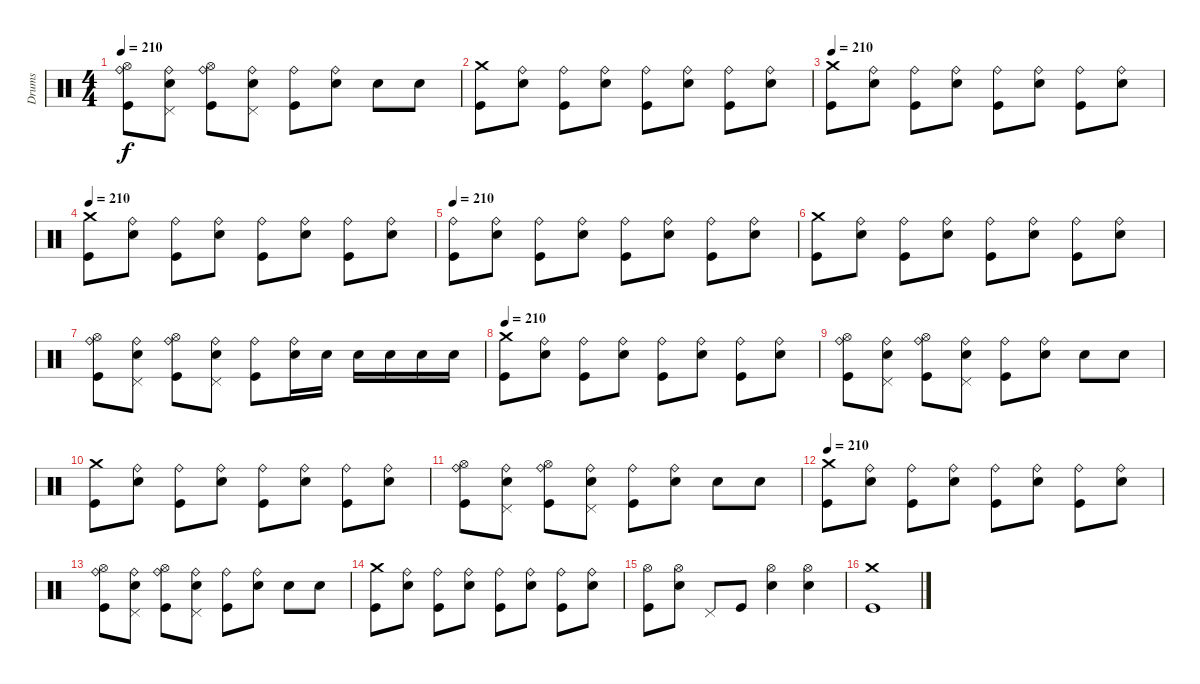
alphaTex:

\track ("Drums" "Drums") {instrument percussion}
\staff {score}
\articulation defaults
\ts (4 4)
\tempo 210
\clef neutral
\ks c
("Ride (bell)" "Hi-Hat (open)" "Kick (hit)").8{dy f} ("Ride (bell)" "Pedal Hi-Hat (hit)" "Electric Snare (hit)").8 ("Ride (bell)" "Hi-Hat (open)" "Kick (hit)").8 ("Ride (bell)" "Pedal Hi-Hat (hit)" "Electric Snare (hit)").8 ("Ride (bell)" "Kick (hit)").8 ("Ride (bell)" "Electric Snare (hit)").8 "Electric Snare (hit)".8 "Electric Snare (hit)".8 |
("Crash medium (hit)" "Kick (hit)").8 ("Ride (bell)" "Electric Snare (hit)").8 ("Ride (bell)" "Kick (hit)").8 ("Ride (bell)" "Electric Snare (hit)").8 ("Ride (bell)" "Kick (hit)").8 ("Ride (bell)" "Electric Snare (hit)").8 ("Ride (bell)" "Kick (hit)").8 ("Ride (bell)" "Electric Snare (hit)").8 |
\tempo 210
("Crash medium (hit)" "Kick (hit)").8 ("Ride (bell)" "Electric Snare (hit)").8 ("Ride (bell)" "Kick (hit)").8 ("Ride (bell)" "Electric Snare (hit)").8 ("Ride (bell)" "Kick (hit)").8 ("Ride (bell)" "Electric Snare (hit)").8 ("Ride (bell)" "Kick (hit)").8 ("Ride (bell)" "Electric Snare (hit)").8 |
\tempo 210
("Crash medium (hit)" "Kick (hit)").8 ("Ride (bell)" "Electric Snare (hit)").8 ("Ride (bell)" "Kick (hit)").8 ("Ride (bell)" "Electric Snare (hit)").8 ("Ride (bell)" "Kick (hit)").8 ("Ride (bell)" "Electric Snare (hit)").8 ("Ride (bell)" "Kick (hit)").8 ("Ride (bell)" "Electric Snare (hit)").8 |
\tempo 210
("Ride (bell)" "Kick (hit)").8 ("Ride (bell)" "Electric Snare (hit)").8 ("Ride (bell)" "Kick (hit)").8 ("Ride (bell)" "Electric Snare (hit)").8 ("Ride (bell)" "Kick (hit)").8 ("Ride (bell)" "Electric Snare (hit)").8 ("Ride (bell)" "Kick (hit)").8 ("Ride (bell)" "Electric Snare (hit)").8 |
("Crash medium (hit)" "Kick (hit)").8 ("Ride (bell)" "Electric Snare (hit)").8 ("Ride (bell)" "Kick (hit)").8 ("Ride (bell)" "Electric Snare (hit)").8 ("Ride (bell)" "Kick (hit)").8 ("Ride (bell)" "Electric Snare (hit)").8 ("Ride (bell)" "Kick (hit)").8 ("Ride (bell)" "Electric Snare (hit)").8 |
("Ride (bell)" "Hi-Hat (open)" "Kick (hit)").8 ("Ride (bell)" "Pedal Hi-Hat (hit)" "Electric Snare (hit)").8 ("Ride (bell)" "Hi-Hat (open)" "Kick (hit)").8 ("Ride (bell)" "Pedal Hi-Hat (hit)" "Electric Snare (hit)").8 ("Ride (bell)" "Kick (hit)").8 ("Ride (bell)" "Electric Snare (hit)").16 "Electric Snare (hit)".16 "Electric Snare (hit)".16 "Electric Snare (hit)".16 "Electric Snare (hit)".16 "Electric Snare (hit)".16 |
\tempo 210
("Crash medium (hit)" "Kick (hit)").8 ("Ride (bell)" "Electric Snare (hit)").8 ("Ride (bell)" "Kick (hit)").8 ("Ride (bell)" "Electric Snare (hit)").8 ("Ride (bell)" "Kick (hit)").8 ("Ride (bell)" "Electric Snare (hit)").8 ("Ride (bell)" "Kick (hit)").8 ("Ride (bell)" "Electric Snare (hit)").8 |
("Ride (bell)" "Hi-Hat (open)" "Kick (hit)").8 ("Ride (bell)" "Pedal Hi-Hat (hit)" "Electric Snare (hit)").8 ("Ride (bell)" "Hi-Hat (open)" "Kick (hit)").8 ("Ride (bell)" "Pedal Hi-Hat (hit)" "Electric Snare (hit)").8 ("Ride (bell)" "Kick (hit)").8 ("Ride (bell)" "Electric Snare (hit)").8 "Electric Snare (hit)".8 "Electric Snare (hit)".8 |
("Crash medium (hit)" "Kick (hit)").8 ("Ride (bell)" "Electric Snare (hit)").8 ("Ride (bell)" "Kick (hit)").8 ("Ride (bell)" "Electric Snare (hit)").8 ("Ride (bell)" "Kick (hit)").8 ("Ride (bell)" "Electric Snare (hit)").8 ("Ride (bell)" "Kick (hit)").8 ("Ride (bell)" "Electric Snare (hit)").8 |
("Ride (bell)" "Hi-Hat (open)" "Kick (hit)").8 ("Ride (bell)" "Pedal Hi-Hat (hit)" "Electric Snare (hit)").8 ("Ride (bell)" "Hi-Hat (open)" "Kick (hit)").8 ("Ride (bell)" "Pedal Hi-Hat (hit)" "Electric Snare (hit)").8 ("Ride (bell)" "Kick (hit)").8 ("Ride (bell)" "Electric Snare (hit)").8 "Electric Snare (hit)".8 "Electric Snare (hit)".8 |
\tempo 210
("Crash medium (hit)" "Kick (hit)").8 ("Ride (bell)" "Electric Snare (hit)").8 ("Ride (bell)" "Kick (hit)").8 ("Ride (bell)" "Electric Snare (hit)").8 ("Ride (bell)" "Kick (hit)").8 ("Ride (bell)" "Electric Snare (hit)").8 ("Ride (bell)" "Kick (hit)").8 ("Ride (bell)" "Electric Snare (hit)").8 |
("Ride (bell)" "Hi-Hat (open)" "Kick (hit)").8 ("Ride (bell)" "Pedal Hi-Hat (hit)" "Electric Snare (hit)").8 ("Ride (bell)" "Hi-Hat (open)" "Kick (hit)").8 ("Ride (bell)" "Pedal Hi-Hat (hit)" "Electric Snare (hit)").8 ("Ride (bell)" "Kick (hit)").8 ("Ride (bell)" "Electric Snare (hit)").8 "Electric Snare (hit)".8 "Electric Snare (hit)".8 |
("Crash medium (hit)" "Kick (hit)").8 ("Ride (bell)" "Electric Snare (hit)").8 ("Ride (bell)" "Kick (hit)").8 ("Ride (bell)" "Electric Snare (hit)").8 ("Ride (bell)" "Kick (hit)").8 ("Ride (bell)" "Electric Snare (hit)").8 ("Ride (bell)" "Kick (hit)").8 ("Ride (bell)" "Electric Snare (hit)").8 |
("Hi-Hat (open)" "Kick (hit)").8 ("Hi-Hat (open)" "Electric Snare (hit)").8 "Pedal Hi-Hat (hit)".8 "Kick (hit)".8 ("Hi-Hat (open)" "Electric Snare (hit)").4 ("Hi-Hat (open)" "Electric Snare (hit)").4 |
("Crash medium (hit)" "Kick (hit)").1
